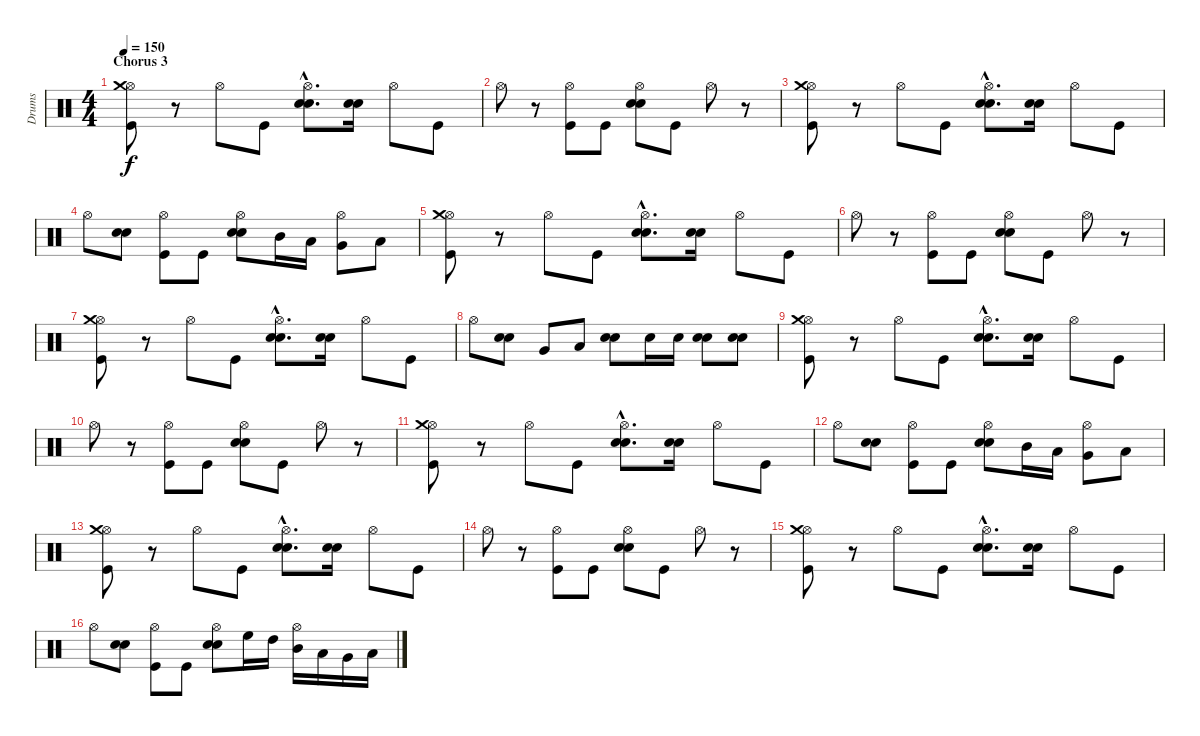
\track ("Drums" "Drums") {instrument percussion}
\staff {score}
\articulation defaults
\ts (4 4)
\section ("" "Chorus 3")
\tempo 150
\clef neutral
\ks c
("Kick (hit)" "Hi-Hat (open)" "Crash medium (hit)").8{dy f} r.8 "Hi-Hat (open)".8 "Kick (hit)".8 ("Electric Snare (hit)"{hac} "Electric Snare (hit)"{hac} "Hi-Hat (open)"{hac}).8{d} ("Electric Snare (hit)" "Electric Snare (hit)").16 "Hi-Hat (open)".8 "Kick (hit)".8 |
"Hi-Hat (open)".8 r.8 ("Kick (hit)" "Hi-Hat (open)").8 "Kick (hit)".8 ("Electric Snare (hit)" "Electric Snare (hit)" "Hi-Hat (open)").8 "Kick (hit)".8 "Hi-Hat (open)".8 r.8 |
("Kick (hit)" "Hi-Hat (open)" "Crash medium (hit)").8 r.8 "Hi-Hat (open)".8 "Kick (hit)".8 ("Electric Snare (hit)"{hac} "Electric Snare (hit)"{hac} "Hi-Hat (open)"{hac}).8{d} ("Electric Snare (hit)" "Electric Snare (hit)").16 "Hi-Hat (open)".8 "Kick (hit)".8 |
"Hi-Hat (open)".8 ("Electric Snare (hit)" "Electric Snare (hit)").8 ("Kick (hit)" "Hi-Hat (open)").8 "Kick (hit)".8 ("Electric Snare (hit)" "Electric Snare (hit)" "Hi-Hat (open)").8 "Mid Tom (hit)".16 "Low Tom (hit)".16 ("Very Low Tom (hit)" "Hi-Hat (open)").8 "Low Floor Tom (hit)".8 |
("Kick (hit)" "Hi-Hat (open)" "Crash medium (hit)").8 r.8 "Hi-Hat (open)".8 "Kick (hit)".8 ("Electric Snare (hit)"{hac} "Electric Snare (hit)"{hac} "Hi-Hat (open)"{hac}).8{d} ("Electric Snare (hit)" "Electric Snare (hit)").16 "Hi-Hat (open)".8 "Kick (hit)".8 |
"Hi-Hat (open)".8 r.8 ("Kick (hit)" "Hi-Hat (open)").8 "Kick (hit)".8 ("Electric Snare (hit)" "Electric Snare (hit)" "Hi-Hat (open)").8 "Kick (hit)".8 "Hi-Hat (open)".8 r.8 |
("Kick (hit)" "Hi-Hat (open)" "Crash medium (hit)").8 r.8 "Hi-Hat (open)".8 "Kick (hit)".8 ("Electric Snare (hit)"{hac} "Electric Snare (hit)"{hac} "Hi-Hat (open)"{hac}).8{d} ("Electric Snare (hit)" "Electric Snare (hit)").16 "Hi-Hat (open)".8 "Kick (hit)".8 |
"Hi-Hat (open)".8 ("Electric Snare (hit)" "Electric Snare (hit)").8 "Very Low Tom (hit)".8 "Low Floor Tom (hit)".8 ("Electric Snare (hit)" "Electric Snare (hit)").8 "Electric Snare (hit)".16 "Electric Snare (hit)".16 ("Electric Snare (hit)" "Electric Snare (hit)").8 ("Electric Snare (hit)" "Electric Snare (hit)").8 |
("Kick (hit)" "Hi-Hat (open)" "Crash medium (hit)").8 r.8 "Hi-Hat (open)".8 "Kick (hit)".8 ("Electric Snare (hit)"{hac} "Electric Snare (hit)"{hac} "Hi-Hat (open)"{hac}).8{d} ("Electric Snare (hit)" "Electric Snare (hit)").16 "Hi-Hat (open)".8 "Kick (hit)".8 |
"Hi-Hat (open)".8 r.8 ("Kick (hit)" "Hi-Hat (open)").8 "Kick (hit)".8 ("Electric Snare (hit)" "Electric Snare (hit)" "Hi-Hat (open)").8 "Kick (hit)".8 "Hi-Hat (open)".8 r.8 |
("Kick (hit)" "Hi-Hat (open)" "Crash medium (hit)").8 r.8 "Hi-Hat (open)".8 "Kick (hit)".8 ("Electric Snare (hit)"{hac} "Electric Snare (hit)"{hac} "Hi-Hat (open)"{hac}).8{d} ("Electric Snare (hit)" "Electric Snare (hit)").16 "Hi-Hat (open)".8 "Kick (hit)".8 |
"Hi-Hat (open)".8 ("Electric Snare (hit)" "Electric Snare (hit)").8 ("Kick (hit)" "Hi-Hat (open)").8 "Kick (hit)".8 ("Electric Snare (hit)" "Electric Snare (hit)" "Hi-Hat (open)").8 "Mid Tom (hit)".16 "Low Tom (hit)".16 ("Very Low Tom (hit)" "Hi-Hat (open)").8 "Low Floor Tom (hit)".8 |
("Kick (hit)" "Hi-Hat (open)" "Crash medium (hit)").8 r.8 "Hi-Hat (open)".8 "Kick (hit)".8 ("Electric Snare (hit)"{hac} "Electric Snare (hit)"{hac} "Hi-Hat (open)"{hac}).8{d} ("Electric Snare (hit)" "Electric Snare (hit)").16 "Hi-Hat (open)".8 "Kick (hit)".8 |
"Hi-Hat (open)".8 r.8 ("Kick (hit)" "Hi-Hat (open)").8 "Kick (hit)".8 ("Electric Snare (hit)" "Electric Snare (hit)" "Hi-Hat (open)").8 "Kick (hit)".8 "Hi-Hat (open)".8 r.8 |
("Kick (hit)" "Hi-Hat (open)" "Crash medium (hit)").8 r.8 "Hi-Hat (open)".8 "Kick (hit)".8 ("Electric Snare (hit)"{hac} "Electric Snare (hit)"{hac} "Hi-Hat (open)"{hac}).8{d} ("Electric Snare (hit)" "Electric Snare (hit)").16 "Hi-Hat (open)".8 "Kick (hit)".8 |
"Hi-Hat (open)".8 ("Electric Snare (hit)" "Electric Snare (hit)").8 ("Kick (hit)" "Hi-Hat (open)").8 "Kick (hit)".8 ("Electric Snare (hit)" "Electric Snare (hit)" "Hi-Hat (open)").8 "High Floor Tom (hit)".16 "High Tom (hit)".16 ("Mid Tom (hit)" "Hi-Hat (open)").16 "Low Tom (hit)".16 "Very Low Tom (hit)".16 "Low Floor Tom (hit)".16
